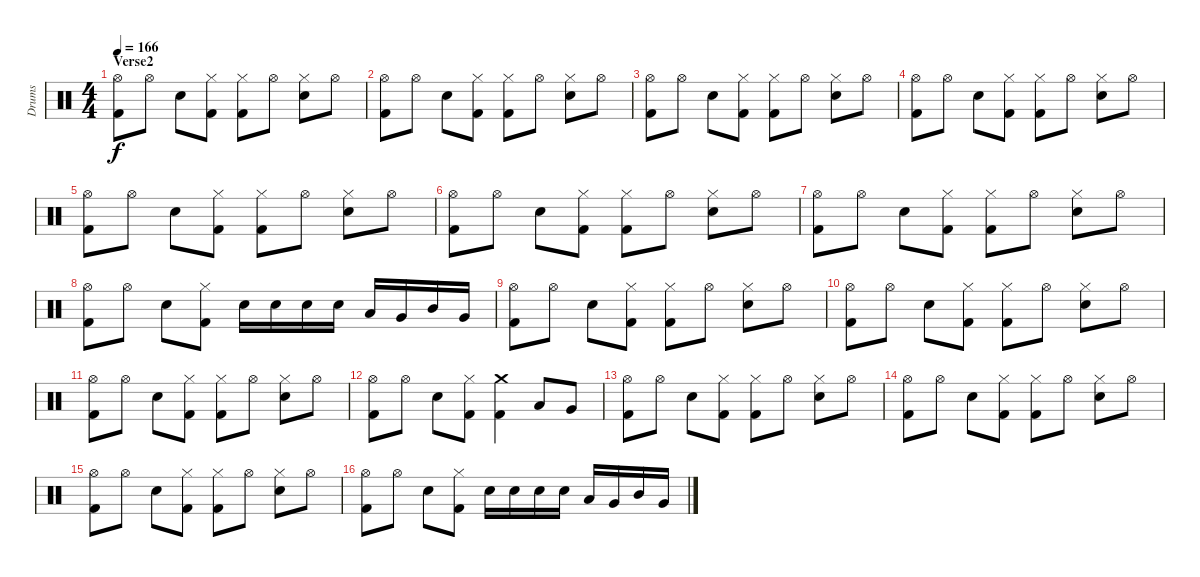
\track ("Drums" "Drums") {instrument percussion}
\staff {score}
\articulation defaults
\ts (4 4)
\section ("" "Verse2")
\tempo 166
\clef neutral
\ks c
("Hi-Hat (open)" "Kick (hit) 2").8{dy f} "Hi-Hat (open)".8 "Electric Snare (hit)".8 ("Hi-Hat (closed)" "Kick (hit) 2").8 ("Hi-Hat (closed)" "Kick (hit) 2").8 "Hi-Hat (open)".8 ("Hi-Hat (closed)" "Electric Snare (hit)").8 "Hi-Hat (open)".8 |
("Hi-Hat (open)" "Kick (hit) 2").8 "Hi-Hat (open)".8 "Electric Snare (hit)".8 ("Hi-Hat (closed)" "Kick (hit) 2").8 ("Hi-Hat (closed)" "Kick (hit) 2").8 "Hi-Hat (open)".8 ("Hi-Hat (closed)" "Electric Snare (hit)").8 "Hi-Hat (open)".8 |
("Hi-Hat (open)" "Kick (hit) 2").8 "Hi-Hat (open)".8 "Electric Snare (hit)".8 ("Hi-Hat (closed)" "Kick (hit) 2").8 ("Hi-Hat (closed)" "Kick (hit) 2").8 "Hi-Hat (open)".8 ("Hi-Hat (closed)" "Electric Snare (hit)").8 "Hi-Hat (open)".8 |
("Hi-Hat (open)" "Kick (hit) 2").8 "Hi-Hat (open)".8 "Electric Snare (hit)".8 ("Hi-Hat (closed)" "Kick (hit) 2").8 ("Hi-Hat (closed)" "Kick (hit) 2").8 "Hi-Hat (open)".8 ("Hi-Hat (closed)" "Electric Snare (hit)").8 "Hi-Hat (open)".8 |
("Hi-Hat (open)" "Kick (hit) 2").8 "Hi-Hat (open)".8 "Electric Snare (hit)".8 ("Hi-Hat (closed)" "Kick (hit) 2").8 ("Hi-Hat (closed)" "Kick (hit) 2").8 "Hi-Hat (open)".8 ("Hi-Hat (closed)" "Electric Snare (hit)").8 "Hi-Hat (open)".8 |
("Hi-Hat (open)" "Kick (hit) 2").8 "Hi-Hat (open)".8 "Electric Snare (hit)".8 ("Hi-Hat (closed)" "Kick (hit) 2").8 ("Hi-Hat (closed)" "Kick (hit) 2").8 "Hi-Hat (open)".8 ("Hi-Hat (closed)" "Electric Snare (hit)").8 "Hi-Hat (open)".8 |
("Hi-Hat (open)" "Kick (hit) 2").8 "Hi-Hat (open)".8 "Electric Snare (hit)".8 ("Hi-Hat (closed)" "Kick (hit) 2").8 ("Hi-Hat (closed)" "Kick (hit) 2").8 "Hi-Hat (open)".8 ("Hi-Hat (closed)" "Electric Snare (hit)").8 "Hi-Hat (open)".8 |
("Hi-Hat (open)" "Kick (hit) 2").8 "Hi-Hat (open)".8 "Electric Snare (hit)".8 ("Hi-Hat (closed)" "Kick (hit) 2").8 "Electric Snare (hit)".16 "Electric Snare (hit)".16 "Snare (hit) 2".16 "Snare (hit) 2".16 "Low Tom (hit)".16 "Very Low Tom (hit)".16 "Mid Tom (hit)".16 "Very Low Tom (hit)".16 |
("Hi-Hat (open)" "Kick (hit) 2").8 "Hi-Hat (open)".8 "Electric Snare (hit)".8 ("Hi-Hat (closed)" "Kick (hit) 2").8 ("Hi-Hat (closed)" "Kick (hit) 2").8 "Hi-Hat (open)".8 ("Hi-Hat (closed)" "Electric Snare (hit)").8 "Hi-Hat (open)".8 |
("Hi-Hat (open)" "Kick (hit) 2").8 "Hi-Hat (open)".8 "Electric Snare (hit)".8 ("Hi-Hat (closed)" "Kick (hit) 2").8 ("Hi-Hat (closed)" "Kick (hit) 2").8 "Hi-Hat (open)".8 ("Hi-Hat (closed)" "Electric Snare (hit)").8 "Hi-Hat (open)".8 |
("Hi-Hat (open)" "Kick (hit) 2").8 "Hi-Hat (open)".8 "Electric Snare (hit)".8 ("Hi-Hat (closed)" "Kick (hit) 2").8 ("Hi-Hat (closed)" "Kick (hit) 2").8 "Hi-Hat (open)".8 ("Hi-Hat (closed)" "Electric Snare (hit)").8 "Hi-Hat (open)".8 |
("Hi-Hat (open)" "Kick (hit) 2").8 "Hi-Hat (open)".8 "Electric Snare (hit)".8 ("Hi-Hat (closed)" "Kick (hit) 2").8 ("Crash medium (hit)" "Kick (hit) 2").4 "Low Tom (hit)".8 "Very Low Tom (hit)".8 |
("Hi-Hat (open)" "Kick (hit) 2").8 "Hi-Hat (open)".8 "Electric Snare (hit)".8 ("Hi-Hat (closed)" "Kick (hit) 2").8 ("Hi-Hat (closed)" "Kick (hit) 2").8 "Hi-Hat (open)".8 ("Hi-Hat (closed)" "Electric Snare (hit)").8 "Hi-Hat (open)".8 |
("Hi-Hat (open)" "Kick (hit) 2").8 "Hi-Hat (open)".8 "Electric Snare (hit)".8 ("Hi-Hat (closed)" "Kick (hit) 2").8 ("Hi-Hat (closed)" "Kick (hit) 2").8 "Hi-Hat (open)".8 ("Hi-Hat (closed)" "Electric Snare (hit)").8 "Hi-Hat (open)".8 |
("Hi-Hat (open)" "Kick (hit) 2").8 "Hi-Hat (open)".8 "Electric Snare (hit)".8 ("Hi-Hat (closed)" "Kick (hit) 2").8 ("Hi-Hat (closed)" "Kick (hit) 2").8 "Hi-Hat (open)".8 ("Hi-Hat (closed)" "Electric Snare (hit)").8 "Hi-Hat (open)".8 |
("Hi-Hat (open)" "Kick (hit) 2").8 "Hi-Hat (open)".8 "Electric Snare (hit)".8 ("Hi-Hat (closed)" "Kick (hit) 2").8 "Electric Snare (hit)".16 "Electric Snare (hit)".16 "Snare (hit) 2".16 "Snare (hit) 2".16 "Low Tom (hit)".16 "Very Low Tom (hit)".16 "Mid Tom (hit)".16 "Very Low Tom (hit)".16
